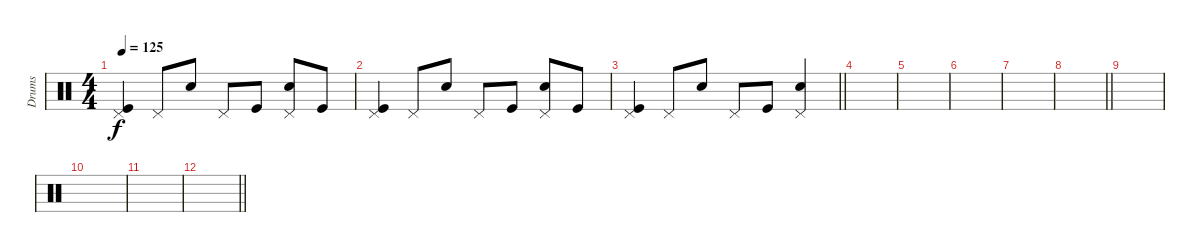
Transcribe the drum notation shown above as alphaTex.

\track ("Drums" "Drums") {instrument percussion}
\staff
\articulation defaults
\ts (4 4)
\tempo 125
\clef neutral
\ks c
("Pedal Hi-Hat (hit)" "Kick (hit)").4{dy f} "Pedal Hi-Hat (hit)".8 "Electric Snare (hit)".8 "Pedal Hi-Hat (hit)".8 "Kick (hit)".8 ("Pedal Hi-Hat (hit)" "Electric Snare (hit)").8 "Kick (hit)".8 |
("Pedal Hi-Hat (hit)" "Kick (hit)").4 "Pedal Hi-Hat (hit)".8 "Electric Snare (hit)".8 "Pedal Hi-Hat (hit)".8 "Kick (hit)".8 ("Pedal Hi-Hat (hit)" "Electric Snare (hit)").8 "Kick (hit)".8 |
\barLineRight lightlight
("Pedal Hi-Hat (hit)" "Kick (hit)").4 "Pedal Hi-Hat (hit)".8 "Electric Snare (hit)".8 "Pedal Hi-Hat (hit)".8 "Kick (hit)".8 ("Pedal Hi-Hat (hit)" "Electric Snare (hit)").4 |
|
|
|
|
\barLineRight lightlight
|
|
|
|
\barLineRight lightlight
